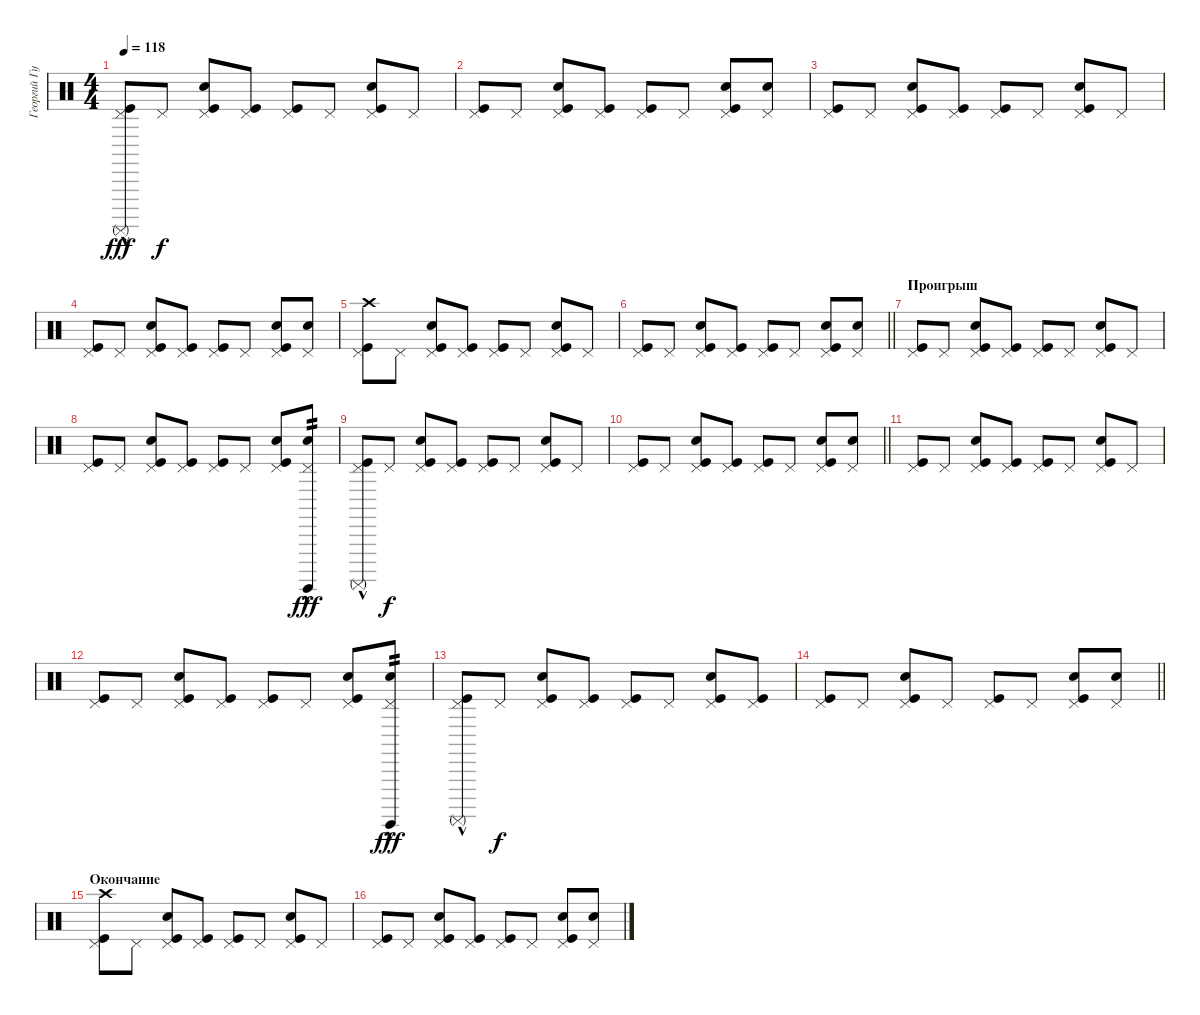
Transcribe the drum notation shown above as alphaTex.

\track ("Георгий Гурьянов" "Георгий Гу") {instrument percussion}
\staff {score}
\articulation defaults
\ts (4 4)
\tempo 118
\clef neutral
\ks c
("Pedal Hi-Hat (hit)" "Kick (hit)" "Surdo (mute)"{hac}).8{dy fff} "Pedal Hi-Hat (hit)".8{dy f} ("Pedal Hi-Hat (hit)" "Kick (hit)" "Snare (hit) 2").8 ("Pedal Hi-Hat (hit)" "Kick (hit)").8 ("Pedal Hi-Hat (hit)" "Kick (hit)").8 "Pedal Hi-Hat (hit)".8 ("Pedal Hi-Hat (hit)" "Kick (hit)" "Snare (hit) 2").8 "Pedal Hi-Hat (hit)".8 |
("Pedal Hi-Hat (hit)" "Kick (hit)").8 "Pedal Hi-Hat (hit)".8 ("Pedal Hi-Hat (hit)" "Kick (hit)" "Snare (hit) 2").8 ("Pedal Hi-Hat (hit)" "Kick (hit)").8 ("Pedal Hi-Hat (hit)" "Kick (hit)").8 "Pedal Hi-Hat (hit)".8 ("Pedal Hi-Hat (hit)" "Kick (hit)" "Snare (hit) 2").8 ("Pedal Hi-Hat (hit)" "Snare (hit) 2").8 |
("Pedal Hi-Hat (hit)" "Kick (hit)").8 "Pedal Hi-Hat (hit)".8 ("Pedal Hi-Hat (hit)" "Kick (hit)" "Snare (hit) 2").8 ("Pedal Hi-Hat (hit)" "Kick (hit)").8 ("Pedal Hi-Hat (hit)" "Kick (hit)").8 "Pedal Hi-Hat (hit)".8 ("Pedal Hi-Hat (hit)" "Kick (hit)" "Snare (hit) 2").8 "Pedal Hi-Hat (hit)".8 |
("Pedal Hi-Hat (hit)" "Kick (hit)").8 "Pedal Hi-Hat (hit)".8 ("Pedal Hi-Hat (hit)" "Kick (hit)" "Snare (hit) 2").8 ("Pedal Hi-Hat (hit)" "Kick (hit)").8 ("Pedal Hi-Hat (hit)" "Kick (hit)").8 "Pedal Hi-Hat (hit)".8 ("Pedal Hi-Hat (hit)" "Kick (hit)" "Snare (hit) 2").8 ("Pedal Hi-Hat (hit)" "Snare (hit) 2").8 |
("Pedal Hi-Hat (hit)" "Kick (hit)" "Crash high (hit)").8 "Pedal Hi-Hat (hit)".8 ("Pedal Hi-Hat (hit)" "Kick (hit)" "Snare (hit) 2").8 ("Pedal Hi-Hat (hit)" "Kick (hit)").8 ("Pedal Hi-Hat (hit)" "Kick (hit)").8 "Pedal Hi-Hat (hit)".8 ("Pedal Hi-Hat (hit)" "Kick (hit)" "Snare (hit) 2").8 "Pedal Hi-Hat (hit)".8 |
\barLineRight lightlight
("Pedal Hi-Hat (hit)" "Kick (hit)").8 "Pedal Hi-Hat (hit)".8 ("Pedal Hi-Hat (hit)" "Kick (hit)" "Snare (hit) 2").8 ("Pedal Hi-Hat (hit)" "Kick (hit)").8 ("Pedal Hi-Hat (hit)" "Kick (hit)").8 "Pedal Hi-Hat (hit)".8 ("Pedal Hi-Hat (hit)" "Kick (hit)" "Snare (hit) 2").8 ("Pedal Hi-Hat (hit)" "Snare (hit) 2").8 |
\section ("" "Проигрыш")
("Pedal Hi-Hat (hit)" "Kick (hit)").8 "Pedal Hi-Hat (hit)".8 ("Pedal Hi-Hat (hit)" "Kick (hit)" "Snare (hit) 2").8 ("Pedal Hi-Hat (hit)" "Kick (hit)").8 ("Pedal Hi-Hat (hit)" "Kick (hit)").8 "Pedal Hi-Hat (hit)".8 ("Pedal Hi-Hat (hit)" "Kick (hit)" "Snare (hit) 2").8 "Pedal Hi-Hat (hit)".8 |
("Pedal Hi-Hat (hit)" "Kick (hit)").8 "Pedal Hi-Hat (hit)".8 ("Pedal Hi-Hat (hit)" "Kick (hit)" "Snare (hit) 2").8 ("Pedal Hi-Hat (hit)" "Kick (hit)").8 ("Pedal Hi-Hat (hit)" "Kick (hit)").8 "Pedal Hi-Hat (hit)".8 ("Pedal Hi-Hat (hit)" "Kick (hit)" "Snare (hit) 2").8 ("Pedal Hi-Hat (hit)" "Snare (hit) 2" "Surdo (hit)"{hac}).8{tp 2 dy fff} |
("Pedal Hi-Hat (hit)" "Kick (hit)" "Surdo (mute)"{hac}).8 "Pedal Hi-Hat (hit)".8{dy f} ("Pedal Hi-Hat (hit)" "Kick (hit)" "Snare (hit) 2").8 ("Pedal Hi-Hat (hit)" "Kick (hit)").8 ("Pedal Hi-Hat (hit)" "Kick (hit)").8 "Pedal Hi-Hat (hit)".8 ("Pedal Hi-Hat (hit)" "Kick (hit)" "Snare (hit) 2").8 "Pedal Hi-Hat (hit)".8 |
\barLineRight lightlight
("Pedal Hi-Hat (hit)" "Kick (hit)").8 "Pedal Hi-Hat (hit)".8 ("Pedal Hi-Hat (hit)" "Kick (hit)" "Snare (hit) 2").8 ("Pedal Hi-Hat (hit)" "Kick (hit)").8 ("Pedal Hi-Hat (hit)" "Kick (hit)").8 "Pedal Hi-Hat (hit)".8 ("Pedal Hi-Hat (hit)" "Kick (hit)" "Snare (hit) 2").8 ("Pedal Hi-Hat (hit)" "Snare (hit) 2").8 |
("Pedal Hi-Hat (hit)" "Kick (hit)").8 "Pedal Hi-Hat (hit)".8 ("Pedal Hi-Hat (hit)" "Kick (hit)" "Snare (hit) 2").8 ("Pedal Hi-Hat (hit)" "Kick (hit)").8 ("Pedal Hi-Hat (hit)" "Kick (hit)").8 "Pedal Hi-Hat (hit)".8 ("Pedal Hi-Hat (hit)" "Kick (hit)" "Snare (hit) 2").8 "Pedal Hi-Hat (hit)".8 |
("Pedal Hi-Hat (hit)" "Kick (hit)").8 "Pedal Hi-Hat (hit)".8 ("Pedal Hi-Hat (hit)" "Kick (hit)" "Snare (hit) 2").8 ("Pedal Hi-Hat (hit)" "Kick (hit)").8 ("Pedal Hi-Hat (hit)" "Kick (hit)").8 "Pedal Hi-Hat (hit)".8 ("Pedal Hi-Hat (hit)" "Kick (hit)" "Snare (hit) 2").8 ("Pedal Hi-Hat (hit)" "Snare (hit) 2" "Surdo (hit)"{hac}).8{tp 2 dy fff} |
("Pedal Hi-Hat (hit)" "Kick (hit)" "Surdo (mute)"{hac}).8 "Pedal Hi-Hat (hit)".8{dy f} ("Pedal Hi-Hat (hit)" "Kick (hit)" "Snare (hit) 2").8 ("Pedal Hi-Hat (hit)" "Kick (hit)").8 ("Pedal Hi-Hat (hit)" "Kick (hit)").8 "Pedal Hi-Hat (hit)".8 ("Pedal Hi-Hat (hit)" "Kick (hit)" "Snare (hit) 2").8 ("Pedal Hi-Hat (hit)" "Kick (hit)").8 |
\barLineRight lightlight
("Pedal Hi-Hat (hit)" "Kick (hit)").8 "Pedal Hi-Hat (hit)".8 ("Pedal Hi-Hat (hit)" "Kick (hit)" "Snare (hit) 2").8 "Pedal Hi-Hat (hit)".8 ("Pedal Hi-Hat (hit)" "Kick (hit)").8 "Pedal Hi-Hat (hit)".8 ("Pedal Hi-Hat (hit)" "Kick (hit)" "Snare (hit) 2").8 ("Pedal Hi-Hat (hit)" "Snare (hit) 2").8 |
\section ("" "Окончание")
("Pedal Hi-Hat (hit)" "Kick (hit)" "Crash high (hit)").8 "Pedal Hi-Hat (hit)".8 ("Pedal Hi-Hat (hit)" "Kick (hit)" "Snare (hit) 2").8 ("Pedal Hi-Hat (hit)" "Kick (hit)").8 ("Pedal Hi-Hat (hit)" "Kick (hit)").8 "Pedal Hi-Hat (hit)".8 ("Pedal Hi-Hat (hit)" "Kick (hit)" "Snare (hit) 2").8 "Pedal Hi-Hat (hit)".8 |
("Pedal Hi-Hat (hit)" "Kick (hit)").8 "Pedal Hi-Hat (hit)".8 ("Pedal Hi-Hat (hit)" "Kick (hit)" "Snare (hit) 2").8 ("Pedal Hi-Hat (hit)" "Kick (hit)").8 ("Pedal Hi-Hat (hit)" "Kick (hit)").8 "Pedal Hi-Hat (hit)".8 ("Pedal Hi-Hat (hit)" "Kick (hit)" "Snare (hit) 2").8 ("Pedal Hi-Hat (hit)" "Snare (hit) 2").8
